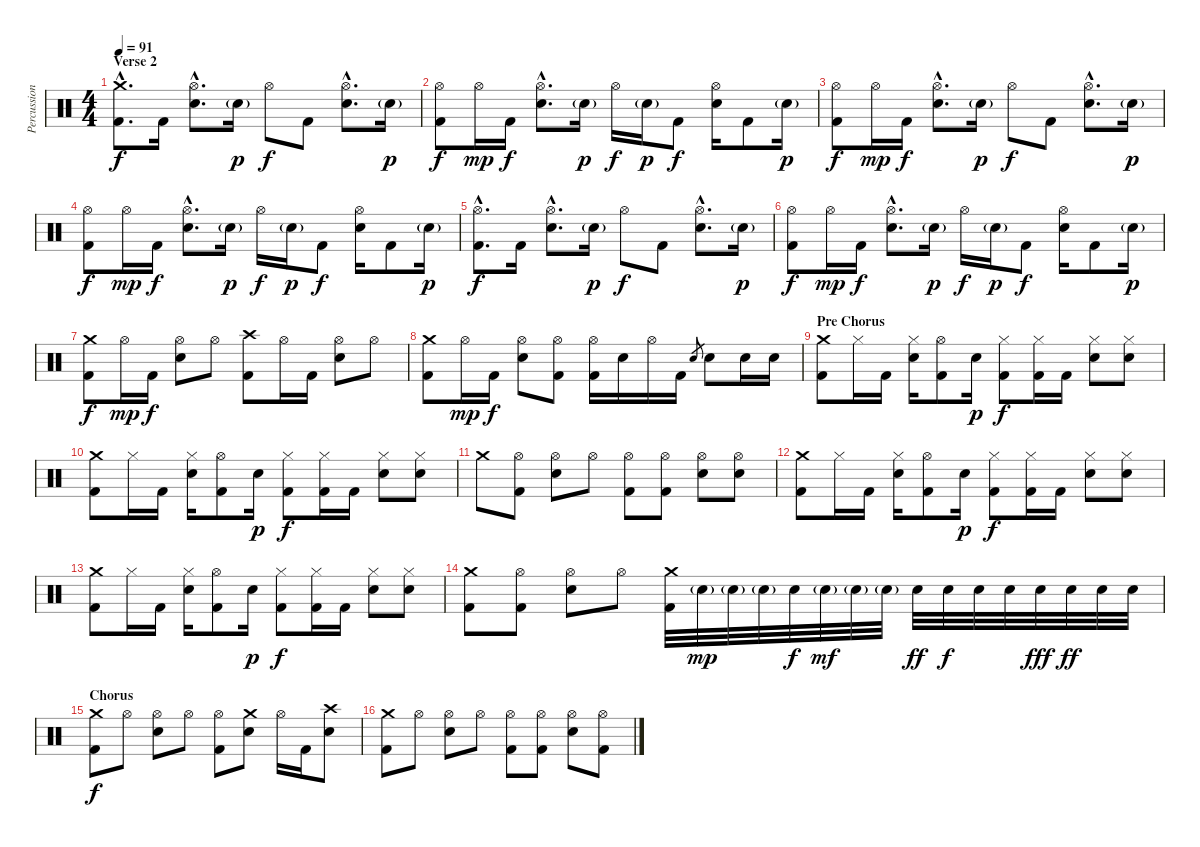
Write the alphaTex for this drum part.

\track ("Percussion" "Percussion") {instrument percussion}
\staff {score}
\articulation defaults
\ts (4 4)
\section ("" "Verse 2")
\tempo 91
\clef neutral
\ks c
("Crash medium (hit)"{hac} "Kick (hit) 2"{hac}).8{d dy f} "Kick (hit) 2".16 ("Hi-Hat (open)"{hac} "Electric Snare (hit)"{hac}).8{d} "Electric Snare (hit)"{g}.16{dy p} "Hi-Hat (open)".8{dy f} "Kick (hit) 2".8 ("Hi-Hat (open)"{hac} "Electric Snare (hit)"{hac}).8{d} "Electric Snare (hit)"{g}.16{dy p} |
("Hi-Hat (open)" "Kick (hit) 2").8{dy f} "Hi-Hat (open)".16{dy mp} "Kick (hit) 2".16{dy f} ("Hi-Hat (open)"{hac} "Electric Snare (hit)"{hac}).8{d} "Electric Snare (hit)"{g}.16{dy p} "Hi-Hat (open)".16{dy f} "Electric Snare (hit)"{g}.16{dy p} "Kick (hit) 2".8{dy f} ("Hi-Hat (open)" "Electric Snare (hit)").16 "Kick (hit) 2".8 "Electric Snare (hit)"{g}.16{dy p} |
("Hi-Hat (open)" "Kick (hit) 2").8{dy f} "Hi-Hat (open)".16{dy mp} "Kick (hit) 2".16{dy f} ("Hi-Hat (open)"{hac} "Electric Snare (hit)"{hac}).8{d} "Electric Snare (hit)"{g}.16{dy p} "Hi-Hat (open)".8{dy f} "Kick (hit) 2".8 ("Hi-Hat (open)"{hac} "Electric Snare (hit)"{hac}).8{d} "Electric Snare (hit)"{g}.16{dy p} |
("Hi-Hat (open)" "Kick (hit) 2").8{dy f} "Hi-Hat (open)".16{dy mp} "Kick (hit) 2".16{dy f} ("Hi-Hat (open)"{hac} "Electric Snare (hit)"{hac}).8{d} "Electric Snare (hit)"{g}.16{dy p} "Hi-Hat (open)".16{dy f} "Electric Snare (hit)"{g}.16{dy p} "Kick (hit) 2".8{dy f} ("Hi-Hat (open)" "Electric Snare (hit)").16 "Kick (hit) 2".8 "Electric Snare (hit)"{g}.16{dy p} |
("Hi-Hat (open)"{hac} "Kick (hit) 2"{hac}).8{d dy f} "Kick (hit) 2".16 ("Hi-Hat (open)"{hac} "Electric Snare (hit)"{hac}).8{d} "Electric Snare (hit)"{g}.16{dy p} "Hi-Hat (open)".8{dy f} "Kick (hit) 2".8 ("Hi-Hat (open)"{hac} "Electric Snare (hit)"{hac}).8{d} "Electric Snare (hit)"{g}.16{dy p} |
("Hi-Hat (open)" "Kick (hit) 2").8{dy f} "Hi-Hat (open)".16{dy mp} "Kick (hit) 2".16{dy f} ("Hi-Hat (open)"{hac} "Electric Snare (hit)"{hac}).8{d} "Electric Snare (hit)"{g}.16{dy p} "Hi-Hat (open)".16{dy f} "Electric Snare (hit)"{g}.16{dy p} "Kick (hit) 2".8{dy f} ("Hi-Hat (open)" "Electric Snare (hit)").16 "Kick (hit) 2".8 "Electric Snare (hit)"{g}.16{dy p} |
("Crash medium (hit)" "Kick (hit) 2").8{dy f} "Hi-Hat (open)".16{dy mp} "Kick (hit) 2".16{dy f} ("Hi-Hat (open)" "Electric Snare (hit)").8 "Hi-Hat (open)".8 ("Crash high (hit)" "Kick (hit) 2").8 "Hi-Hat (open)".16 "Kick (hit) 2".16 ("Hi-Hat (open)" "Electric Snare (hit)").8 "Hi-Hat (open)".8 |
("Crash medium (hit)" "Kick (hit) 2").8 "Hi-Hat (open)".16{dy mp} "Kick (hit) 2".16{dy f} ("Hi-Hat (open)" "Electric Snare (hit)").8 ("Hi-Hat (open)" "Kick (hit) 2").8 ("Hi-Hat (open)" "Kick (hit) 2").16 "Electric Snare (hit)".16 "Hi-Hat (open)".16 "Kick (hit) 2".16 "Electric Snare (hit)".8{gr} "Electric Snare (hit)".8 "Electric Snare (hit)".16 "Electric Snare (hit)".16 |
\section ("" "Pre Chorus")
("Crash medium (hit)" "Kick (hit) 2").8 "Hi-Hat (closed)".16 "Kick (hit) 2".16 ("Hi-Hat (closed)" "Electric Snare (hit)").16 ("Hi-Hat (open)" "Kick (hit) 2").8 "Electric Snare (hit)".16{dy p} ("Hi-Hat (closed)" "Kick (hit) 2").8{dy f} ("Hi-Hat (closed)" "Kick (hit) 2").16 "Kick (hit) 2".16 ("Hi-Hat (closed)" "Electric Snare (hit)").8 ("Hi-Hat (closed)" "Electric Snare (hit)").8 |
("Crash medium (hit)" "Kick (hit) 2").8 "Hi-Hat (closed)".16 "Kick (hit) 2".16 ("Hi-Hat (closed)" "Electric Snare (hit)").16 ("Hi-Hat (open)" "Kick (hit) 2").8 "Electric Snare (hit)".16{dy p} ("Hi-Hat (closed)" "Kick (hit) 2").8{dy f} ("Hi-Hat (closed)" "Kick (hit) 2").16 "Kick (hit) 2".16 ("Hi-Hat (closed)" "Electric Snare (hit)").8 ("Hi-Hat (closed)" "Electric Snare (hit)").8 |
"Crash medium (hit)".8 ("Hi-Hat (open)" "Kick (hit) 2").8 ("Hi-Hat (open)" "Electric Snare (hit)").8 "Hi-Hat (open)".8 ("Hi-Hat (open)" "Kick (hit) 2").8 ("Hi-Hat (open)" "Kick (hit) 2").8 ("Hi-Hat (open)" "Electric Snare (hit)").8 ("Hi-Hat (open)" "Electric Snare (hit)").8 |
("Crash medium (hit)" "Kick (hit) 2").8 "Hi-Hat (closed)".16 "Kick (hit) 2".16 ("Hi-Hat (closed)" "Electric Snare (hit)").16 ("Hi-Hat (open)" "Kick (hit) 2").8 "Electric Snare (hit)".16{dy p} ("Hi-Hat (closed)" "Kick (hit) 2").8{dy f} ("Hi-Hat (closed)" "Kick (hit) 2").16 "Kick (hit) 2".16 ("Hi-Hat (closed)" "Electric Snare (hit)").8 ("Hi-Hat (closed)" "Electric Snare (hit)").8 |
("Crash medium (hit)" "Kick (hit) 2").8 "Hi-Hat (closed)".16 "Kick (hit) 2".16 ("Hi-Hat (closed)" "Electric Snare (hit)").16 ("Hi-Hat (open)" "Kick (hit) 2").8 "Electric Snare (hit)".16{dy p} ("Hi-Hat (closed)" "Kick (hit) 2").8{dy f} ("Hi-Hat (closed)" "Kick (hit) 2").16 "Kick (hit) 2".16 ("Hi-Hat (closed)" "Electric Snare (hit)").8 ("Hi-Hat (closed)" "Electric Snare (hit)").8 |
("Crash medium (hit)" "Kick (hit) 2").8 ("Hi-Hat (open)" "Kick (hit) 2").8 ("Hi-Hat (open)" "Electric Snare (hit)").8 "Hi-Hat (open)".8 ("Crash medium (hit)" "Kick (hit) 2").32 "Electric Snare (hit)"{g}.32{dy mp} "Electric Snare (hit)"{g}.32 "Electric Snare (hit)"{g}.32 "Electric Snare (hit)".32{dy f} "Electric Snare (hit)"{g}.32{dy mf} "Electric Snare (hit)"{g}.32 "Electric Snare (hit)"{g}.32 "Electric Snare (hit)".32{dy ff} "Electric Snare (hit)".32{dy f} "Electric Snare (hit)".32 "Electric Snare (hit)".32 "Electric Snare (hit)".32{dy fff} "Electric Snare (hit)".32{dy ff} "Electric Snare (hit)".32 "Electric Snare (hit)".32 |
\section ("" "Chorus")
("Crash medium (hit)" "Kick (hit) 2").8{dy f} "Hi-Hat (open)".8 ("Hi-Hat (open)" "Electric Snare (hit)").8 "Hi-Hat (open)".8 ("Hi-Hat (open)" "Kick (hit) 2").8 ("Crash medium (hit)" "Electric Snare (hit)").8 "Hi-Hat (open)".16 "Kick (hit) 2".16 ("Crash high (hit)" "Electric Snare (hit)").8 |
("Crash medium (hit)" "Kick (hit) 2").8 "Hi-Hat (open)".8 ("Hi-Hat (open)" "Electric Snare (hit)").8 "Hi-Hat (open)".8 ("Hi-Hat (open)" "Kick (hit) 2").8 ("Hi-Hat (open)" "Kick (hit) 2").8 ("Hi-Hat (open)" "Electric Snare (hit)").8 ("Hi-Hat (open)" "Kick (hit) 2").8
